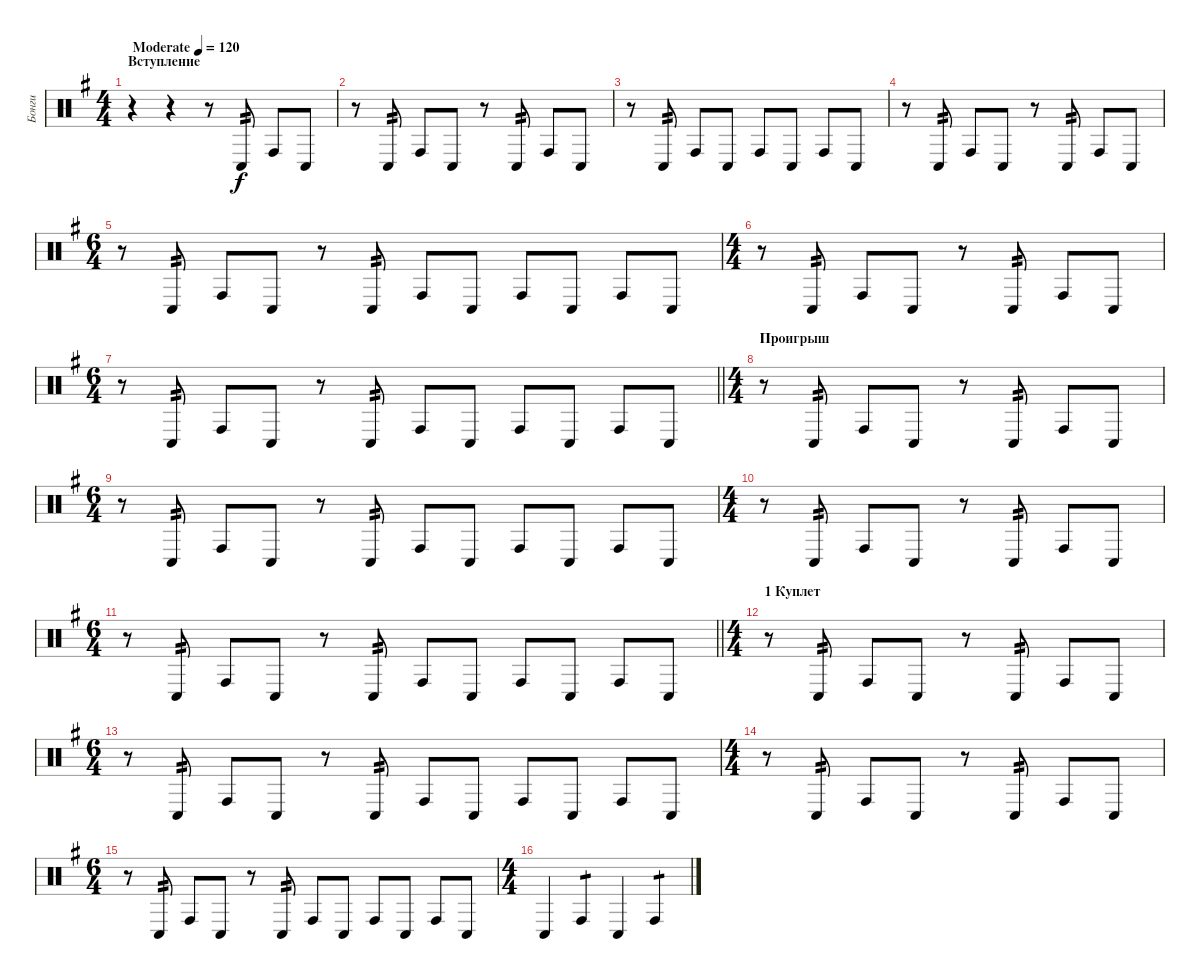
\track ("Бонги" "Бонги") {instrument percussion}
\staff {score}
\articulation defaults
\ts (4 4)
\section ("" "Вступление")
\tempo (120 "Moderate")
\clef neutral
\ks eminor
r.4{dy f} r.4 r.8 "Conga low (hit)".8{tp 2} "Conga high (hit)".8 "Conga low (hit)".8 |
r.8 "Conga low (hit)".8{tp 2} "Conga high (hit)".8 "Conga low (hit)".8 r.8 "Conga low (hit)".8{tp 2} "Conga high (hit)".8 "Conga low (hit)".8 |
r.8 "Conga low (hit)".8{tp 2} "Conga high (hit)".8 "Conga low (hit)".8 "Conga high (hit)".8 "Conga low (hit)".8 "Conga high (hit)".8 "Conga low (hit)".8 |
r.8 "Conga low (hit)".8{tp 2} "Conga high (hit)".8 "Conga low (hit)".8 r.8 "Conga low (hit)".8{tp 2} "Conga high (hit)".8 "Conga low (hit)".8 |
\ts (6 4)
r.8 "Conga low (hit)".8{tp 2} "Conga high (hit)".8 "Conga low (hit)".8 r.8 "Conga low (hit)".8{tp 2} "Conga high (hit)".8 "Conga low (hit)".8 "Conga high (hit)".8 "Conga low (hit)".8 "Conga high (hit)".8 "Conga low (hit)".8 |
\ts (4 4)
r.8 "Conga low (hit)".8{tp 2} "Conga high (hit)".8 "Conga low (hit)".8 r.8 "Conga low (hit)".8{tp 2} "Conga high (hit)".8 "Conga low (hit)".8 |
\ts (6 4)
\barLineRight lightlight
r.8 "Conga low (hit)".8{tp 2} "Conga high (hit)".8 "Conga low (hit)".8 r.8 "Conga low (hit)".8{tp 2} "Conga high (hit)".8 "Conga low (hit)".8 "Conga high (hit)".8 "Conga low (hit)".8 "Conga high (hit)".8 "Conga low (hit)".8 |
\ts (4 4)
\section ("" "Проигрыш")
r.8 "Conga low (hit)".8{tp 2} "Conga high (hit)".8 "Conga low (hit)".8 r.8 "Conga low (hit)".8{tp 2} "Conga high (hit)".8 "Conga low (hit)".8 |
\ts (6 4)
r.8 "Conga low (hit)".8{tp 2} "Conga high (hit)".8 "Conga low (hit)".8 r.8 "Conga low (hit)".8{tp 2} "Conga high (hit)".8 "Conga low (hit)".8 "Conga high (hit)".8 "Conga low (hit)".8 "Conga high (hit)".8 "Conga low (hit)".8 |
\ts (4 4)
r.8 "Conga low (hit)".8{tp 2} "Conga high (hit)".8 "Conga low (hit)".8 r.8 "Conga low (hit)".8{tp 2} "Conga high (hit)".8 "Conga low (hit)".8 |
\ts (6 4)
\barLineRight lightlight
r.8 "Conga low (hit)".8{tp 2} "Conga high (hit)".8 "Conga low (hit)".8 r.8 "Conga low (hit)".8{tp 2} "Conga high (hit)".8 "Conga low (hit)".8 "Conga high (hit)".8 "Conga low (hit)".8 "Conga high (hit)".8 "Conga low (hit)".8 |
\ts (4 4)
\section ("" "1 Куплет")
r.8 "Conga low (hit)".8{tp 2} "Conga high (hit)".8 "Conga low (hit)".8 r.8 "Conga low (hit)".8{tp 2} "Conga high (hit)".8 "Conga low (hit)".8 |
\ts (6 4)
r.8 "Conga low (hit)".8{tp 2} "Conga high (hit)".8 "Conga low (hit)".8 r.8 "Conga low (hit)".8{tp 2} "Conga high (hit)".8 "Conga low (hit)".8 "Conga high (hit)".8 "Conga low (hit)".8 "Conga high (hit)".8 "Conga low (hit)".8 |
\ts (4 4)
r.8 "Conga low (hit)".8{tp 2} "Conga high (hit)".8 "Conga low (hit)".8 r.8 "Conga low (hit)".8{tp 2} "Conga high (hit)".8 "Conga low (hit)".8 |
\ts (6 4)
r.8 "Conga low (hit)".8{tp 2} "Conga high (hit)".8 "Conga low (hit)".8 r.8 "Conga low (hit)".8{tp 2} "Conga high (hit)".8 "Conga low (hit)".8 "Conga high (hit)".8 "Conga low (hit)".8 "Conga high (hit)".8 "Conga low (hit)".8 |
\ts (4 4)
"Conga low (hit)".4 "Conga high (hit)".4{tp 1} "Conga low (hit)".4 "Conga high (hit)".4{tp 1}
